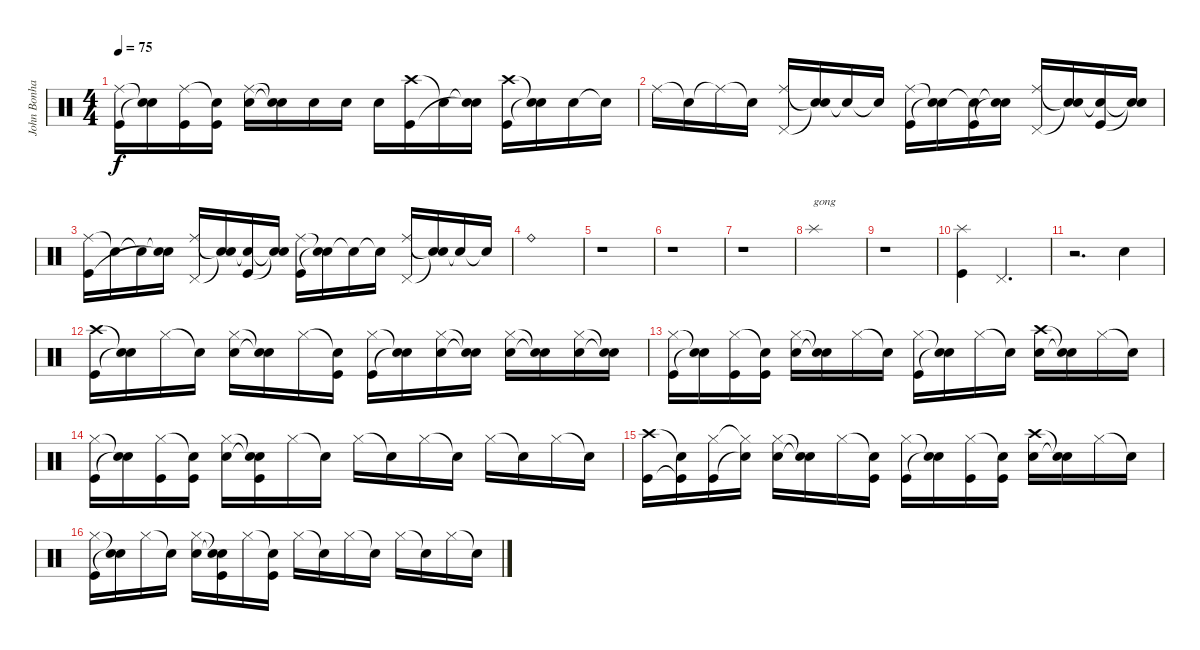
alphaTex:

\track ("John Bonham (Drums)" "John Bonha") {instrument percussion}
\staff {score}
\articulation defaults
\ts (4 4)
\tempo 75
\clef neutral
\ks c
("Ride (middle)" "Kick (hit)").16{dy f} ("Snare (hit)"{t} "Snare (hit)"{t}).16 ("Ride (middle)" "Kick (hit)").16 ("Snare (hit)"{t} "Kick (hit)").16 ("Ride (middle)" "Snare (hit) 2").16 ("Snare (hit)"{t} "Snare (hit)"{t}).16 "Snare (hit) 2".16 "Snare (hit) 2".16 "Snare (hit) 2".16 ("Crash high (hit)" "Kick (hit)").16 "Snare (hit)"{t}.16 ("Snare (hit)"{t} "Snare (hit)"{t}).16 ("Crash high (hit)" "Kick (hit)").16 ("Snare (hit)"{t} "Snare (hit)"{t}).16 "Snare (hit) 2".16 "Snare (hit)"{t}.16 |
"Ride (middle)".16 "Snare (hit)"{t}.16 "Ride (middle)"{t}.16 "Snare (hit)"{t}.16 ("Ride (middle)" "Pedal Hi-Hat (hit)").16 ("Snare (hit)"{t} "Snare (hit)"{t}).16 "Snare (hit)"{t}.16 "Snare (hit)"{t}.16 ("Ride (middle)" "Kick (hit)").16 ("Snare (hit)"{t} "Snare (hit)"{t}).16 ("Snare (hit)"{t} "Kick (hit)").16 ("Snare (hit)"{t} "Snare (hit)"{t}).16 ("Ride (middle)" "Pedal Hi-Hat (hit)").16 ("Snare (hit)"{t} "Snare (hit)"{t}).16 ("Snare (hit)"{t} "Kick (hit)").16 ("Snare (hit)"{t} "Snare (hit)"{t}).16 |
("Ride (middle)" "Kick (hit)").16 "Snare (hit)"{t}.16 "Snare (hit)"{t}.16 ("Snare (hit)"{t} "Snare (hit)"{t}).16 ("Ride (middle)" "Pedal Hi-Hat (hit)").16 ("Snare (hit)"{t} "Snare (hit)"{t}).16 ("Snare (hit)"{t} "Kick (hit)").16 ("Snare (hit)"{t} "Snare (hit)"{t}).16 ("Ride (middle)" "Kick (hit)").16 ("Snare (hit)"{t} "Snare (hit)"{t}).16 "Snare (hit)"{t}.16 "Snare (hit)"{t}.16 ("Ride (middle)" "Pedal Hi-Hat (hit)").16 ("Snare (hit)"{t} "Snare (hit)"{t}).16 "Snare (hit)"{t}.16 "Snare (hit)"{t}.16 |
"Ride (bell)".1 |
r.1 |
r.1 |
r.1 |
"Splash (hit)".1{txt "gong"} |
r.1 |
("Splash (hit)" "Kick (hit)").4 "Pedal Hi-Hat (hit)".2{d} |
r.2{d} "Snare (hit) 2".4 |
("Crash high (hit)" "Kick (hit)").16 ("Snare (hit)"{t} "Snare (hit)"{t}).16 "Hi-Hat (closed)".16 "Snare (hit)"{t}.16 ("Hi-Hat (closed)" "Snare (hit) 2").16 ("Snare (hit)"{t} "Snare (hit)"{t}).16 "Hi-Hat (closed)".16 ("Snare (hit)"{t} "Kick (hit)").16 ("Hi-Hat (closed)" "Kick (hit)").16 ("Snare (hit)"{t} "Snare (hit)"{t}).16 ("Hi-Hat (closed)" "Snare (hit) 2").16 ("Snare (hit)"{t} "Snare (hit)"{t}).16 ("Hi-Hat (closed)" "Snare (hit) 2").16 ("Snare (hit)"{t} "Snare (hit)"{t}).16 ("Hi-Hat (closed)" "Snare (hit) 2").16 ("Snare (hit)"{t} "Snare (hit)"{t}).16 |
("Hi-Hat (closed)" "Kick (hit)").16 ("Snare (hit)"{t} "Snare (hit)"{t}).16 ("Hi-Hat (closed)" "Kick (hit)").16 ("Snare (hit)"{t} "Kick (hit)").16 ("Hi-Hat (closed)" "Snare (hit) 2").16 ("Snare (hit)"{t} "Snare (hit)"{t}).16 "Hi-Hat (closed)".16 "Snare (hit)"{t}.16 ("Hi-Hat (closed)" "Kick (hit)").16 ("Snare (hit)"{t} "Snare (hit)"{t}).16 "Hi-Hat (closed)".16 "Snare (hit)"{t}.16 ("Crash high (hit)" "Snare (hit) 2").16 ("Snare (hit)"{t} "Snare (hit)"{t}).16 "Hi-Hat (closed)".16 "Snare (hit)"{t}.16 |
("Hi-Hat (closed)" "Kick (hit)").16 ("Snare (hit)"{t} "Snare (hit)"{t}).16 ("Hi-Hat (closed)" "Kick (hit)").16 ("Snare (hit)"{t} "Kick (hit)").16 ("Hi-Hat (closed)" "Snare (hit) 2").16 ("Snare (hit)"{t} "Snare (hit)"{t} "Kick (hit)").16 "Hi-Hat (closed)".16 "Snare (hit)"{t}.16 "Hi-Hat (closed)".16 "Snare (hit)"{t}.16 "Hi-Hat (closed)".16 "Snare (hit)"{t}.16 "Hi-Hat (closed)".16 "Snare (hit)"{t}.16 "Hi-Hat (closed)".16 "Snare (hit)"{t}.16 |
("Crash high (hit)" "Kick (hit)").16 ("Snare (hit)"{t} "Kick (hit)"{t}).16 ("Hi-Hat (closed)" "Kick (hit)").16 ("Hi-Hat (closed)"{t} "Snare (hit)"{t}).16 ("Hi-Hat (closed)" "Snare (hit) 2").16 ("Snare (hit)"{t} "Snare (hit)"{t}).16 "Hi-Hat (closed)".16 ("Snare (hit)"{t} "Kick (hit)").16 ("Hi-Hat (closed)" "Kick (hit)").16 ("Snare (hit)"{t} "Snare (hit)"{t}).16 ("Hi-Hat (closed)" "Kick (hit)").16 ("Snare (hit)"{t} "Kick (hit)").16 ("Crash high (hit)" "Snare (hit) 2").16 ("Snare (hit)"{t} "Snare (hit)"{t}).16 "Hi-Hat (closed)".16 "Snare (hit)"{t}.16 |
("Hi-Hat (closed)" "Kick (hit)").16 ("Snare (hit)"{t} "Snare (hit)"{t}).16 "Hi-Hat (closed)".16 "Snare (hit)"{t}.16 ("Hi-Hat (closed)" "Snare (hit) 2").16 ("Snare (hit)"{t} "Snare (hit)"{t} "Kick (hit)").16 "Hi-Hat (closed)".16 ("Snare (hit)"{t} "Kick (hit)").16 "Hi-Hat (closed)".16 "Snare (hit)"{t}.16 "Hi-Hat (closed)".16 "Snare (hit)"{t}.16 "Hi-Hat (closed)".16 "Snare (hit)"{t}.16 "Hi-Hat (closed)".16 "Snare (hit)"{t}.16
